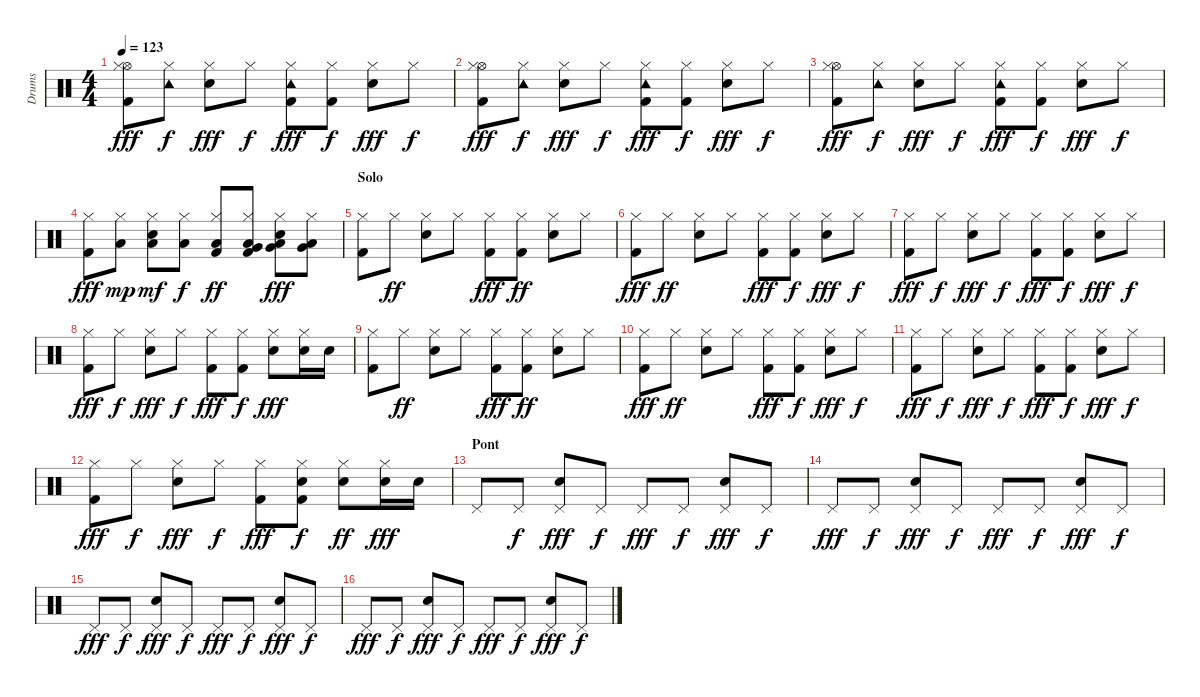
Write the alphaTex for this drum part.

\track ("Drums" "Drums") {instrument percussion}
\staff {score}
\articulation defaults
\ts (4 4)
\tempo 123
\clef neutral
\ks c
("Kick (hit) 2" "Hi-Hat (open)" "Hi-Hat (closed)").8{dy fff} ("Tambourine (hit)" "Hi-Hat (closed)").8{dy f} ("Snare (hit) 2" "Hi-Hat (closed)").8{dy fff} "Hi-Hat (closed)".8{dy f} ("Kick (hit) 2" "Tambourine (hit)" "Hi-Hat (closed)").8{dy fff} ("Kick (hit) 2" "Hi-Hat (closed)").8{dy f} ("Snare (hit) 2" "Hi-Hat (closed)").8{dy fff} "Hi-Hat (closed)".8{dy f} |
("Kick (hit) 2" "Hi-Hat (open)" "Hi-Hat (closed)").8{dy fff} ("Tambourine (hit)" "Hi-Hat (closed)").8{dy f} ("Snare (hit) 2" "Hi-Hat (closed)").8{dy fff} "Hi-Hat (closed)".8{dy f} ("Kick (hit) 2" "Tambourine (hit)" "Hi-Hat (closed)").8{dy fff} ("Kick (hit) 2" "Hi-Hat (closed)").8{dy f} ("Snare (hit) 2" "Hi-Hat (closed)").8{dy fff} "Hi-Hat (closed)".8{dy f} |
("Kick (hit) 2" "Hi-Hat (open)" "Hi-Hat (closed)").8{dy fff} ("Tambourine (hit)" "Hi-Hat (closed)").8{dy f} ("Snare (hit) 2" "Hi-Hat (closed)").8{dy fff} "Hi-Hat (closed)".8{dy f} ("Kick (hit) 2" "Tambourine (hit)" "Hi-Hat (closed)").8{dy fff} ("Kick (hit) 2" "Hi-Hat (closed)").8{dy f} ("Snare (hit) 2" "Hi-Hat (closed)").8{dy fff} "Hi-Hat (closed)".8{dy f} |
("Kick (hit) 2" "Hi-Hat (closed)").8{dy fff} ("Low Tom (hit)" "Hi-Hat (closed)").8{dy mp} ("Snare (hit) 2" "Low Tom (hit)" "Hi-Hat (closed)").8{dy mf} ("Low Tom (hit)" "Hi-Hat (closed)").8{dy f} ("Kick (hit) 2" "Low Tom (hit)" "Hi-Hat (closed)").8{dy ff} ("Kick (hit) 2" "Very Low Tom (hit)" "Low Tom (hit)" "Hi-Hat (closed)").8 ("Snare (hit) 2" "Very Low Tom (hit)" "Low Tom (hit)" "Hi-Hat (closed)").8{dy fff} ("Very Low Tom (hit)" "Low Tom (hit)" "Hi-Hat (closed)").8 |
\section ("" "Solo")
("Kick (hit) 2" "Hi-Hat (closed)").8 "Hi-Hat (closed)".8{dy ff} ("Snare (hit) 2" "Hi-Hat (closed)").8 "Hi-Hat (closed)".8 ("Kick (hit) 2" "Hi-Hat (closed)").8{dy fff} ("Kick (hit) 2" "Hi-Hat (closed)").8{dy ff} ("Snare (hit) 2" "Hi-Hat (closed)").8 "Hi-Hat (closed)".8 |
("Kick (hit) 2" "Hi-Hat (closed)").8{dy fff} "Hi-Hat (closed)".8{dy ff} ("Snare (hit) 2" "Hi-Hat (closed)").8 "Hi-Hat (closed)".8 ("Kick (hit) 2" "Hi-Hat (closed)").8{dy fff} ("Kick (hit) 2" "Hi-Hat (closed)").8{dy f} ("Snare (hit) 2" "Hi-Hat (closed)").8{dy fff} "Hi-Hat (closed)".8{dy f} |
("Kick (hit) 2" "Hi-Hat (closed)").8{dy fff} "Hi-Hat (closed)".8{dy f} ("Snare (hit) 2" "Hi-Hat (closed)").8{dy fff} "Hi-Hat (closed)".8{dy f} ("Kick (hit) 2" "Hi-Hat (closed)").8{dy fff} ("Kick (hit) 2" "Hi-Hat (closed)").8{dy f} ("Snare (hit) 2" "Hi-Hat (closed)").8{dy fff} "Hi-Hat (closed)".8{dy f} |
("Kick (hit) 2" "Hi-Hat (closed)").8{dy fff} "Hi-Hat (closed)".8{dy f} ("Snare (hit) 2" "Hi-Hat (closed)").8{dy fff} "Hi-Hat (closed)".8{dy f} ("Kick (hit) 2" "Hi-Hat (closed)").8{dy fff} ("Kick (hit) 2" "Hi-Hat (closed)").8{dy f} ("Snare (hit) 2" "Hi-Hat (closed)").8{dy fff} ("Snare (hit) 2" "Hi-Hat (closed)").16 "Snare (hit) 2".16 |
("Kick (hit) 2" "Hi-Hat (closed)").8 "Hi-Hat (closed)".8{dy ff} ("Snare (hit) 2" "Hi-Hat (closed)").8 "Hi-Hat (closed)".8 ("Kick (hit) 2" "Hi-Hat (closed)").8{dy fff} ("Kick (hit) 2" "Hi-Hat (closed)").8{dy ff} ("Snare (hit) 2" "Hi-Hat (closed)").8 "Hi-Hat (closed)".8 |
("Kick (hit) 2" "Hi-Hat (closed)").8{dy fff} "Hi-Hat (closed)".8{dy ff} ("Snare (hit) 2" "Hi-Hat (closed)").8 "Hi-Hat (closed)".8 ("Kick (hit) 2" "Hi-Hat (closed)").8{dy fff} ("Kick (hit) 2" "Hi-Hat (closed)").8{dy f} ("Snare (hit) 2" "Hi-Hat (closed)").8{dy fff} "Hi-Hat (closed)".8{dy f} |
("Kick (hit) 2" "Hi-Hat (closed)").8{dy fff} "Hi-Hat (closed)".8{dy f} ("Snare (hit) 2" "Hi-Hat (closed)").8{dy fff} "Hi-Hat (closed)".8{dy f} ("Kick (hit) 2" "Hi-Hat (closed)").8{dy fff} ("Kick (hit) 2" "Hi-Hat (closed)").8{dy f} ("Snare (hit) 2" "Hi-Hat (closed)").8{dy fff} "Hi-Hat (closed)".8{dy f} |
("Kick (hit) 2" "Hi-Hat (closed)").8{dy fff} "Hi-Hat (closed)".8{dy f} ("Snare (hit) 2" "Hi-Hat (closed)").8{dy fff} "Hi-Hat (closed)".8{dy f} ("Kick (hit) 2" "Hi-Hat (closed)").8{dy fff} ("Kick (hit) 2" "Snare (hit) 2" "Hi-Hat (closed)").8{dy f} ("Snare (hit) 2" "Hi-Hat (closed)").8{dy ff} ("Snare (hit) 2" "Hi-Hat (closed)").16{dy fff} "Snare (hit) 2".16 |
\section ("" "Pont")
"Pedal Hi-Hat (hit)".8 "Pedal Hi-Hat (hit)".8{dy f} ("Snare (hit) 2" "Pedal Hi-Hat (hit)").8{dy fff} "Pedal Hi-Hat (hit)".8{dy f} "Pedal Hi-Hat (hit)".8{dy fff} "Pedal Hi-Hat (hit)".8{dy f} ("Snare (hit) 2" "Pedal Hi-Hat (hit)").8{dy fff} "Pedal Hi-Hat (hit)".8{dy f} |
"Pedal Hi-Hat (hit)".8{dy fff} "Pedal Hi-Hat (hit)".8{dy f} ("Snare (hit) 2" "Pedal Hi-Hat (hit)").8{dy fff} "Pedal Hi-Hat (hit)".8{dy f} "Pedal Hi-Hat (hit)".8{dy fff} "Pedal Hi-Hat (hit)".8{dy f} ("Snare (hit) 2" "Pedal Hi-Hat (hit)").8{dy fff} "Pedal Hi-Hat (hit)".8{dy f} |
"Pedal Hi-Hat (hit)".8{dy fff} "Pedal Hi-Hat (hit)".8{dy f} ("Snare (hit) 2" "Pedal Hi-Hat (hit)").8{dy fff} "Pedal Hi-Hat (hit)".8{dy f} "Pedal Hi-Hat (hit)".8{dy fff} "Pedal Hi-Hat (hit)".8{dy f} ("Snare (hit) 2" "Pedal Hi-Hat (hit)").8{dy fff} "Pedal Hi-Hat (hit)".8{dy f} |
"Pedal Hi-Hat (hit)".8{dy fff} "Pedal Hi-Hat (hit)".8{dy f} ("Snare (hit) 2" "Pedal Hi-Hat (hit)").8{dy fff} "Pedal Hi-Hat (hit)".8{dy f} "Pedal Hi-Hat (hit)".8{dy fff} "Pedal Hi-Hat (hit)".8{dy f} ("Snare (hit) 2" "Pedal Hi-Hat (hit)").8{dy fff} "Pedal Hi-Hat (hit)".8{dy f}
